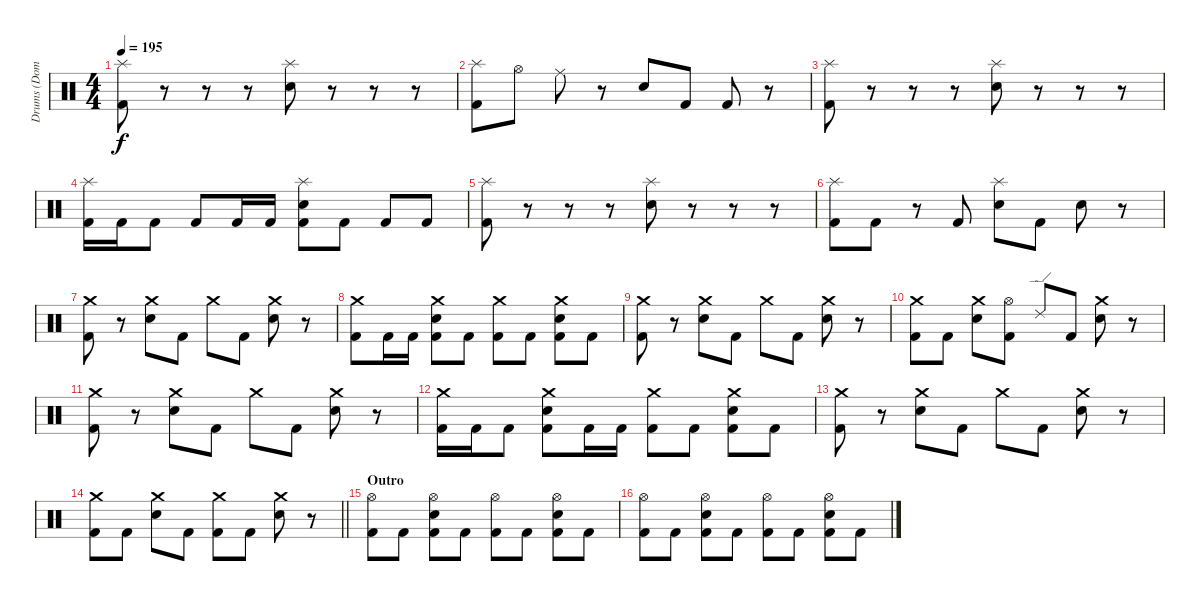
\track ("Drums (Dominik)" "Drums (Dom") {instrument percussion}
\staff {score}
\articulation defaults
\ts (4 4)
\tempo 195
\clef neutral
\ks c
("Splash (hit)" "Kick (hit) 2").8{dy f} r.8 r.8 r.8 ("Splash (hit)" "Electric Snare (hit)").8 r.8 r.8 r.8 |
("Splash (hit)" "Kick (hit) 2").8 "Hi-Hat (open)".8 "Ride (middle)".8 r.8 "Electric Snare (hit)".8 "Kick (hit) 2".8 "Kick (hit) 2".8 r.8 |
("Splash (hit)" "Kick (hit) 2").8 r.8 r.8 r.8 ("Splash (hit)" "Electric Snare (hit)").8 r.8 r.8 r.8 |
("Splash (hit)" "Kick (hit) 2").16 "Kick (hit) 2".16 "Kick (hit) 2".8 "Kick (hit) 2".8 "Kick (hit) 2".16 "Kick (hit) 2".16 ("Splash (hit)" "Electric Snare (hit)" "Kick (hit) 2").8 "Kick (hit) 2".8 "Kick (hit) 2".8 "Kick (hit) 2".8 |
("Splash (hit)" "Kick (hit) 2").8 r.8 r.8 r.8 ("Splash (hit)" "Electric Snare (hit)").8 r.8 r.8 r.8 |
("Splash (hit)" "Kick (hit) 2").8 "Kick (hit) 2".8 r.8 "Kick (hit) 2".8 ("Splash (hit)" "Electric Snare (hit)").8 "Kick (hit) 2".8 "Electric Snare (hit)".8 r.8 |
("Crash medium (hit)" "Kick (hit) 2").8 r.8 ("Crash medium (hit)" "Electric Snare (hit)").8 "Kick (hit) 2".8 "Crash medium (hit)".8 "Kick (hit) 2".8 ("Crash medium (hit)" "Electric Snare (hit)").8 r.8 |
("Crash medium (hit)" "Kick (hit) 2").8 "Kick (hit) 2".16 "Kick (hit) 2".16 ("Crash medium (hit)" "Electric Snare (hit)" "Kick (hit) 2").8 "Kick (hit) 2".8 ("Crash medium (hit)" "Kick (hit) 2").8 "Kick (hit) 2".8 ("Crash medium (hit)" "Electric Snare (hit)" "Kick (hit) 2").8 "Kick (hit) 2".8 |
("Crash medium (hit)" "Kick (hit) 2").8 r.8 ("Crash medium (hit)" "Electric Snare (hit)").8 "Kick (hit) 2".8 "Crash medium (hit)".8 "Kick (hit) 2".8 ("Crash medium (hit)" "Electric Snare (hit)").8 r.8 |
("Crash medium (hit)" "Kick (hit) 2").8 "Kick (hit) 2".8 ("Crash medium (hit)" "Electric Snare (hit)").8 ("Hi-Hat (open)" "Kick (hit) 2").8 "Ride (edge) 2".8 "Kick (hit) 2".8 ("Crash medium (hit)" "Electric Snare (hit)").8 r.8 |
("Crash medium (hit)" "Kick (hit) 2").8 r.8 ("Crash medium (hit)" "Electric Snare (hit)").8 "Kick (hit) 2".8 "Crash medium (hit)".8 "Kick (hit) 2".8 ("Crash medium (hit)" "Electric Snare (hit)").8 r.8 |
("Crash medium (hit)" "Kick (hit) 2").16 "Kick (hit) 2".16 "Kick (hit) 2".8 ("Crash medium (hit)" "Electric Snare (hit)" "Kick (hit) 2").8 "Kick (hit) 2".16 "Kick (hit) 2".16 ("Crash medium (hit)" "Kick (hit) 2").8 "Kick (hit) 2".8 ("Crash medium (hit)" "Electric Snare (hit)" "Kick (hit) 2").8 "Kick (hit) 2".8 |
("Crash medium (hit)" "Kick (hit) 2").8 r.8 ("Crash medium (hit)" "Electric Snare (hit)").8 "Kick (hit) 2".8 "Crash medium (hit)".8 "Kick (hit) 2".8 ("Crash medium (hit)" "Electric Snare (hit)").8 r.8 |
\barLineRight lightlight
("Crash medium (hit)" "Kick (hit) 2").8 "Kick (hit) 2".8 ("Crash medium (hit)" "Electric Snare (hit)").8 "Kick (hit) 2".8 ("Crash medium (hit)" "Kick (hit) 2").8 "Kick (hit) 2".8 ("Crash medium (hit)" "Electric Snare (hit)").8 r.8 |
\section ("" "Outro")
("Hi-Hat (open)" "Kick (hit) 2").8 "Kick (hit) 2".8 ("Hi-Hat (open)" "Electric Snare (hit)" "Kick (hit) 2").8 "Kick (hit) 2".8 ("Hi-Hat (open)" "Kick (hit) 2").8 "Kick (hit) 2".8 ("Hi-Hat (open)" "Electric Snare (hit)" "Kick (hit) 2").8 "Kick (hit) 2".8 |
("Hi-Hat (open)" "Kick (hit) 2").8 "Kick (hit) 2".8 ("Hi-Hat (open)" "Electric Snare (hit)" "Kick (hit) 2").8 "Kick (hit) 2".8 ("Hi-Hat (open)" "Kick (hit) 2").8 "Kick (hit) 2".8 ("Hi-Hat (open)" "Electric Snare (hit)" "Kick (hit) 2").8 "Kick (hit) 2".8
